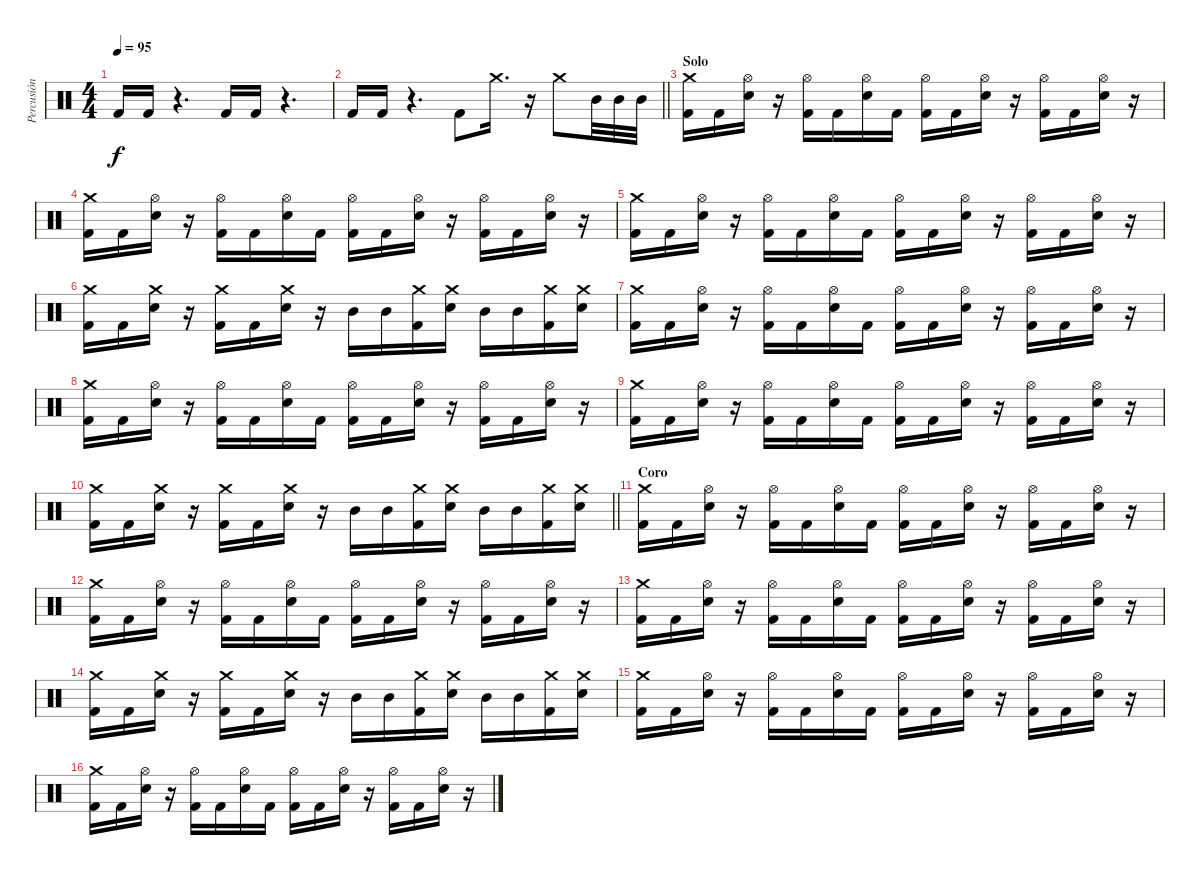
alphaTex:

\track ("Percusión" "Percusión") {instrument percussion}
\staff {score}
\articulation defaults
\ts (4 4)
\tempo 95
\clef neutral
\ks c "Kick (hit) 2".16{dy f} "Kick (hit) 2".16
r.4{d} "Kick (hit) 2".16 "Kick (hit) 2".16 r.4{d} |
\barLineRight lightlight "Kick (hit) 2".16 "Kick (hit) 2".16
r.4{d} "Kick (hit) 2".8 "Crash medium (hit)".16{d} r.16 "Crash medium (hit)".8 "Mid Tom (hit)".32 "Mid Tom (hit)".32 "Mid Tom (hit)".32 |
\section ("" "Solo")
("Crash medium (hit)" "Kick (hit) 2").16 "Kick (hit) 2".16 ("Hi-Hat (open)" "Electric Snare (hit)").16 r.16 ("Hi-Hat (open)" "Kick (hit) 2").16 "Kick (hit) 2".16 ("Hi-Hat (open)" "Electric Snare (hit)").16 "Kick (hit) 2".16 ("Hi-Hat (open)" "Kick (hit) 2").16 "Kick (hit) 2".16 ("Hi-Hat (open)" "Electric Snare (hit)").16 r.16 ("Hi-Hat (open)" "Kick (hit) 2").16 "Kick (hit) 2".16 ("Hi-Hat (open)" "Electric Snare (hit)").16 r.16 |
("Crash medium (hit)" "Kick (hit) 2").16 "Kick (hit) 2".16 ("Hi-Hat (open)" "Electric Snare (hit)").16 r.16 ("Hi-Hat (open)" "Kick (hit) 2").16 "Kick (hit) 2".16 ("Hi-Hat (open)" "Electric Snare (hit)").16 "Kick (hit) 2".16 ("Hi-Hat (open)" "Kick (hit) 2").16 "Kick (hit) 2".16 ("Hi-Hat (open)" "Electric Snare (hit)").16 r.16 ("Hi-Hat (open)" "Kick (hit) 2").16 "Kick (hit) 2".16 ("Hi-Hat (open)" "Electric Snare (hit)").16 r.16 |
("Crash medium (hit)" "Kick (hit) 2").16 "Kick (hit) 2".16 ("Hi-Hat (open)" "Electric Snare (hit)").16 r.16 ("Hi-Hat (open)" "Kick (hit) 2").16 "Kick (hit) 2".16 ("Hi-Hat (open)" "Electric Snare (hit)").16 "Kick (hit) 2".16 ("Hi-Hat (open)" "Kick (hit) 2").16 "Kick (hit) 2".16 ("Hi-Hat (open)" "Electric Snare (hit)").16 r.16 ("Hi-Hat (open)" "Kick (hit) 2").16 "Kick (hit) 2".16 ("Hi-Hat (open)" "Electric Snare (hit)").16 r.16 |
("Crash medium (hit)" "Kick (hit) 2").16 "Kick (hit) 2".16 ("Crash medium (hit)" "Electric Snare (hit)").16 r.16 ("Crash medium (hit)" "Kick (hit) 2").16 "Kick (hit) 2".16 ("Crash medium (hit)" "Electric Snare (hit)").16 r.16 "Mid Tom (hit)".16 "Mid Tom (hit)".16 ("Crash medium (hit)" "Kick (hit) 2").16 ("Crash medium (hit)" "Electric Snare (hit)").16 "Mid Tom (hit)".16 "Mid Tom (hit)".16 ("Crash medium (hit)" "Kick (hit) 2").16 ("Crash medium (hit)" "Electric Snare (hit)").16 |
("Crash medium (hit)" "Kick (hit) 2").16 "Kick (hit) 2".16 ("Hi-Hat (open)" "Electric Snare (hit)").16 r.16 ("Hi-Hat (open)" "Kick (hit) 2").16 "Kick (hit) 2".16 ("Hi-Hat (open)" "Electric Snare (hit)").16 "Kick (hit) 2".16 ("Hi-Hat (open)" "Kick (hit) 2").16 "Kick (hit) 2".16 ("Hi-Hat (open)" "Electric Snare (hit)").16 r.16 ("Hi-Hat (open)" "Kick (hit) 2").16 "Kick (hit) 2".16 ("Hi-Hat (open)" "Electric Snare (hit)").16 r.16 |
("Crash medium (hit)" "Kick (hit) 2").16 "Kick (hit) 2".16 ("Hi-Hat (open)" "Electric Snare (hit)").16 r.16 ("Hi-Hat (open)" "Kick (hit) 2").16 "Kick (hit) 2".16 ("Hi-Hat (open)" "Electric Snare (hit)").16 "Kick (hit) 2".16 ("Hi-Hat (open)" "Kick (hit) 2").16 "Kick (hit) 2".16 ("Hi-Hat (open)" "Electric Snare (hit)").16 r.16 ("Hi-Hat (open)" "Kick (hit) 2").16 "Kick (hit) 2".16 ("Hi-Hat (open)" "Electric Snare (hit)").16 r.16 |
("Crash medium (hit)" "Kick (hit) 2").16 "Kick (hit) 2".16 ("Hi-Hat (open)" "Electric Snare (hit)").16 r.16 ("Hi-Hat (open)" "Kick (hit) 2").16 "Kick (hit) 2".16 ("Hi-Hat (open)" "Electric Snare (hit)").16 "Kick (hit) 2".16 ("Hi-Hat (open)" "Kick (hit) 2").16 "Kick (hit) 2".16 ("Hi-Hat (open)" "Electric Snare (hit)").16 r.16 ("Hi-Hat (open)" "Kick (hit) 2").16 "Kick (hit) 2".16 ("Hi-Hat (open)" "Electric Snare (hit)").16 r.16 |
\barLineRight lightlight
("Crash medium (hit)" "Kick (hit) 2").16 "Kick (hit) 2".16 ("Crash medium (hit)" "Electric Snare (hit)").16 r.16 ("Crash medium (hit)" "Kick (hit) 2").16 "Kick (hit) 2".16 ("Crash medium (hit)" "Electric Snare (hit)").16 r.16 "Mid Tom (hit)".16 "Mid Tom (hit)".16 ("Crash medium (hit)" "Kick (hit) 2").16 ("Crash medium (hit)" "Electric Snare (hit)").16 "Mid Tom (hit)".16 "Mid Tom (hit)".16 ("Crash medium (hit)" "Kick (hit) 2").16 ("Crash medium (hit)" "Electric Snare (hit)").16 |
\section ("" "Coro")
("Crash medium (hit)" "Kick (hit) 2").16 "Kick (hit) 2".16 ("Hi-Hat (open)" "Electric Snare (hit)").16 r.16 ("Hi-Hat (open)" "Kick (hit) 2").16 "Kick (hit) 2".16 ("Hi-Hat (open)" "Electric Snare (hit)").16 "Kick (hit) 2".16 ("Hi-Hat (open)" "Kick (hit) 2").16 "Kick (hit) 2".16 ("Hi-Hat (open)" "Electric Snare (hit)").16 r.16 ("Hi-Hat (open)" "Kick (hit) 2").16 "Kick (hit) 2".16 ("Hi-Hat (open)" "Electric Snare (hit)").16 r.16 |
("Crash medium (hit)" "Kick (hit) 2").16 "Kick (hit) 2".16 ("Hi-Hat (open)" "Electric Snare (hit)").16 r.16 ("Hi-Hat (open)" "Kick (hit) 2").16 "Kick (hit) 2".16 ("Hi-Hat (open)" "Electric Snare (hit)").16 "Kick (hit) 2".16 ("Hi-Hat (open)" "Kick (hit) 2").16 "Kick (hit) 2".16 ("Hi-Hat (open)" "Electric Snare (hit)").16 r.16 ("Hi-Hat (open)" "Kick (hit) 2").16 "Kick (hit) 2".16 ("Hi-Hat (open)" "Electric Snare (hit)").16 r.16 |
("Crash medium (hit)" "Kick (hit) 2").16 "Kick (hit) 2".16 ("Hi-Hat (open)" "Electric Snare (hit)").16 r.16 ("Hi-Hat (open)" "Kick (hit) 2").16 "Kick (hit) 2".16 ("Hi-Hat (open)" "Electric Snare (hit)").16 "Kick (hit) 2".16 ("Hi-Hat (open)" "Kick (hit) 2").16 "Kick (hit) 2".16 ("Hi-Hat (open)" "Electric Snare (hit)").16 r.16 ("Hi-Hat (open)" "Kick (hit) 2").16 "Kick (hit) 2".16 ("Hi-Hat (open)" "Electric Snare (hit)").16 r.16 |
("Crash medium (hit)" "Kick (hit) 2").16 "Kick (hit) 2".16 ("Crash medium (hit)" "Electric Snare (hit)").16 r.16 ("Crash medium (hit)" "Kick (hit) 2").16 "Kick (hit) 2".16 ("Crash medium (hit)" "Electric Snare (hit)").16 r.16 "Mid Tom (hit)".16 "Mid Tom (hit)".16 ("Crash medium (hit)" "Kick (hit) 2").16 ("Crash medium (hit)" "Electric Snare (hit)").16 "Mid Tom (hit)".16 "Mid Tom (hit)".16 ("Crash medium (hit)" "Kick (hit) 2").16 ("Crash medium (hit)" "Electric Snare (hit)").16 |
("Crash medium (hit)" "Kick (hit) 2").16 "Kick (hit) 2".16 ("Hi-Hat (open)" "Electric Snare (hit)").16 r.16 ("Hi-Hat (open)" "Kick (hit) 2").16 "Kick (hit) 2".16 ("Hi-Hat (open)" "Electric Snare (hit)").16 "Kick (hit) 2".16 ("Hi-Hat (open)" "Kick (hit) 2").16 "Kick (hit) 2".16 ("Hi-Hat (open)" "Electric Snare (hit)").16 r.16 ("Hi-Hat (open)" "Kick (hit) 2").16 "Kick (hit) 2".16 ("Hi-Hat (open)" "Electric Snare (hit)").16 r.16 |
("Crash medium (hit)" "Kick (hit) 2").16 "Kick (hit) 2".16 ("Hi-Hat (open)" "Electric Snare (hit)").16 r.16 ("Hi-Hat (open)" "Kick (hit) 2").16 "Kick (hit) 2".16 ("Hi-Hat (open)" "Electric Snare (hit)").16 "Kick (hit) 2".16 ("Hi-Hat (open)" "Kick (hit) 2").16 "Kick (hit) 2".16 ("Hi-Hat (open)" "Electric Snare (hit)").16 r.16 ("Hi-Hat (open)" "Kick (hit) 2").16 "Kick (hit) 2".16 ("Hi-Hat (open)" "Electric Snare (hit)").16 r.16
